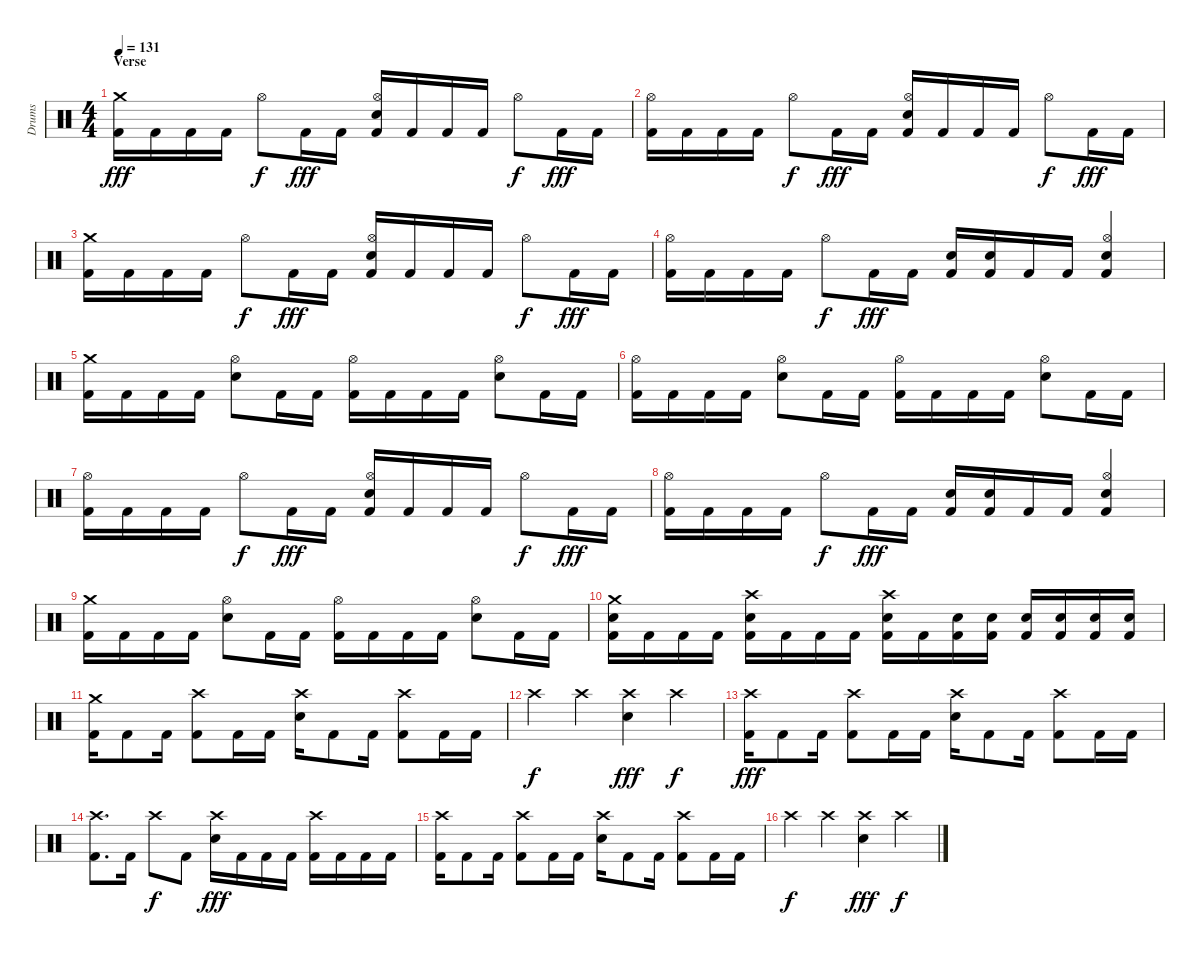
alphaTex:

\track ("Drums" "Drums") {instrument percussion}
\staff {score}
\articulation defaults
\ts (4 4)
\section ("" "Verse")
\tempo 131
\clef neutral
\ks c
("Crash medium (hit)" "Kick (hit) 2").16{dy fff} "Kick (hit) 2".16 "Kick (hit) 2".16 "Kick (hit) 2".16 "Hi-Hat (open)".8{dy f} "Kick (hit) 2".16{dy fff} "Kick (hit) 2".16 ("Hi-Hat (open)" "Electric Snare (hit)" "Kick (hit) 2").16 "Kick (hit) 2".16 "Kick (hit) 2".16 "Kick (hit) 2".16 "Hi-Hat (open)".8{dy f} "Kick (hit) 2".16{dy fff} "Kick (hit) 2".16 |
("Hi-Hat (open)" "Kick (hit) 2").16 "Kick (hit) 2".16 "Kick (hit) 2".16 "Kick (hit) 2".16 "Hi-Hat (open)".8{dy f} "Kick (hit) 2".16{dy fff} "Kick (hit) 2".16 ("Hi-Hat (open)" "Electric Snare (hit)" "Kick (hit) 2").16 "Kick (hit) 2".16 "Kick (hit) 2".16 "Kick (hit) 2".16 "Hi-Hat (open)".8{dy f} "Kick (hit) 2".16{dy fff} "Kick (hit) 2".16 |
("Crash medium (hit)" "Kick (hit) 2").16 "Kick (hit) 2".16 "Kick (hit) 2".16 "Kick (hit) 2".16 "Hi-Hat (open)".8{dy f} "Kick (hit) 2".16{dy fff} "Kick (hit) 2".16 ("Hi-Hat (open)" "Electric Snare (hit)" "Kick (hit) 2").16 "Kick (hit) 2".16 "Kick (hit) 2".16 "Kick (hit) 2".16 "Hi-Hat (open)".8{dy f} "Kick (hit) 2".16{dy fff} "Kick (hit) 2".16 |
("Hi-Hat (open)" "Kick (hit) 2").16 "Kick (hit) 2".16 "Kick (hit) 2".16 "Kick (hit) 2".16 "Hi-Hat (open)".8{dy f} "Kick (hit) 2".16{dy fff} "Kick (hit) 2".16 ("Electric Snare (hit)" "Kick (hit) 2").16 ("Electric Snare (hit)" "Kick (hit) 2").16 "Kick (hit) 2".16 "Kick (hit) 2".16 ("Hi-Hat (open)" "Electric Snare (hit)" "Kick (hit) 2").4 |
("Crash medium (hit)" "Kick (hit) 2").16 "Kick (hit) 2".16 "Kick (hit) 2".16 "Kick (hit) 2".16 ("Hi-Hat (open)" "Electric Snare (hit)").8 "Kick (hit) 2".16 "Kick (hit) 2".16 ("Hi-Hat (open)" "Kick (hit) 2").16 "Kick (hit) 2".16 "Kick (hit) 2".16 "Kick (hit) 2".16 ("Hi-Hat (open)" "Electric Snare (hit)").8 "Kick (hit) 2".16 "Kick (hit) 2".16 |
("Hi-Hat (open)" "Kick (hit) 2").16 "Kick (hit) 2".16 "Kick (hit) 2".16 "Kick (hit) 2".16 ("Hi-Hat (open)" "Electric Snare (hit)").8 "Kick (hit) 2".16 "Kick (hit) 2".16 ("Hi-Hat (open)" "Kick (hit) 2").16 "Kick (hit) 2".16 "Kick (hit) 2".16 "Kick (hit) 2".16 ("Hi-Hat (open)" "Electric Snare (hit)").8 "Kick (hit) 2".16 "Kick (hit) 2".16 |
("Hi-Hat (open)" "Kick (hit) 2").16 "Kick (hit) 2".16 "Kick (hit) 2".16 "Kick (hit) 2".16 "Hi-Hat (open)".8{dy f} "Kick (hit) 2".16{dy fff} "Kick (hit) 2".16 ("Hi-Hat (open)" "Electric Snare (hit)" "Kick (hit) 2").16 "Kick (hit) 2".16 "Kick (hit) 2".16 "Kick (hit) 2".16 "Hi-Hat (open)".8{dy f} "Kick (hit) 2".16{dy fff} "Kick (hit) 2".16 |
("Hi-Hat (open)" "Kick (hit) 2").16 "Kick (hit) 2".16 "Kick (hit) 2".16 "Kick (hit) 2".16 "Hi-Hat (open)".8{dy f} "Kick (hit) 2".16{dy fff} "Kick (hit) 2".16 ("Electric Snare (hit)" "Kick (hit) 2").16 ("Electric Snare (hit)" "Kick (hit) 2").16 "Kick (hit) 2".16 "Kick (hit) 2".16 ("Hi-Hat (open)" "Electric Snare (hit)" "Kick (hit) 2").4 |
("Crash medium (hit)" "Kick (hit) 2").16 "Kick (hit) 2".16 "Kick (hit) 2".16 "Kick (hit) 2".16 ("Hi-Hat (open)" "Electric Snare (hit)").8 "Kick (hit) 2".16 "Kick (hit) 2".16 ("Hi-Hat (open)" "Kick (hit) 2").16 "Kick (hit) 2".16 "Kick (hit) 2".16 "Kick (hit) 2".16 ("Hi-Hat (open)" "Electric Snare (hit)").8 "Kick (hit) 2".16 "Kick (hit) 2".16 |
("Crash medium (hit)" "Electric Snare (hit)" "Kick (hit) 2").16 "Kick (hit) 2".16 "Kick (hit) 2".16 "Kick (hit) 2".16 ("Crash high (hit)" "Electric Snare (hit)" "Kick (hit) 2").16 "Kick (hit) 2".16 "Kick (hit) 2".16 "Kick (hit) 2".16 ("Crash high (hit)" "Electric Snare (hit)" "Kick (hit) 2").16 "Kick (hit) 2".16 ("Electric Snare (hit)" "Kick (hit) 2").16 ("Electric Snare (hit)" "Kick (hit) 2").16 ("Electric Snare (hit)" "Kick (hit) 2").16 ("Electric Snare (hit)" "Kick (hit) 2").16 ("Electric Snare (hit)" "Kick (hit) 2").16 ("Electric Snare (hit)" "Kick (hit) 2").16 |
("Crash medium (hit)" "Kick (hit) 2").16 "Kick (hit) 2".8 "Kick (hit) 2".16 ("Crash high (hit)" "Kick (hit) 2").8 "Kick (hit) 2".16 "Kick (hit) 2".16 ("Crash high (hit)" "Electric Snare (hit)").16 "Kick (hit) 2".8 "Kick (hit) 2".16 ("Crash high (hit)" "Kick (hit) 2").8 "Kick (hit) 2".16 "Kick (hit) 2".16 |
"Crash high (hit)".4{dy f} "Crash high (hit)".4 ("Crash high (hit)" "Electric Snare (hit)").4{dy fff} "Crash high (hit)".4{dy f} |
("Crash high (hit)" "Kick (hit) 2").16{dy fff} "Kick (hit) 2".8 "Kick (hit) 2".16 ("Crash high (hit)" "Kick (hit) 2").8 "Kick (hit) 2".16 "Kick (hit) 2".16 ("Crash high (hit)" "Electric Snare (hit)").16 "Kick (hit) 2".8 "Kick (hit) 2".16 ("Crash high (hit)" "Kick (hit) 2").8 "Kick (hit) 2".16 "Kick (hit) 2".16 |
("Crash high (hit)" "Kick (hit) 2").8{d} "Kick (hit) 2".16 "Crash high (hit)".8{dy f} "Kick (hit) 2".8 ("Crash high (hit)" "Electric Snare (hit)").16{dy fff} "Kick (hit) 2".16 "Kick (hit) 2".16 "Kick (hit) 2".16 ("Crash high (hit)" "Kick (hit) 2").16 "Kick (hit) 2".16 "Kick (hit) 2".16 "Kick (hit) 2".16 |
("Crash high (hit)" "Kick (hit) 2").16 "Kick (hit) 2".8 "Kick (hit) 2".16 ("Crash high (hit)" "Kick (hit) 2").8 "Kick (hit) 2".16 "Kick (hit) 2".16 ("Crash high (hit)" "Electric Snare (hit)").16 "Kick (hit) 2".8 "Kick (hit) 2".16 ("Crash high (hit)" "Kick (hit) 2").8 "Kick (hit) 2".16 "Kick (hit) 2".16 |
"Crash high (hit)".4{dy f} "Crash high (hit)".4 ("Crash high (hit)" "Electric Snare (hit)").4{dy fff} "Crash high (hit)".4{dy f}
